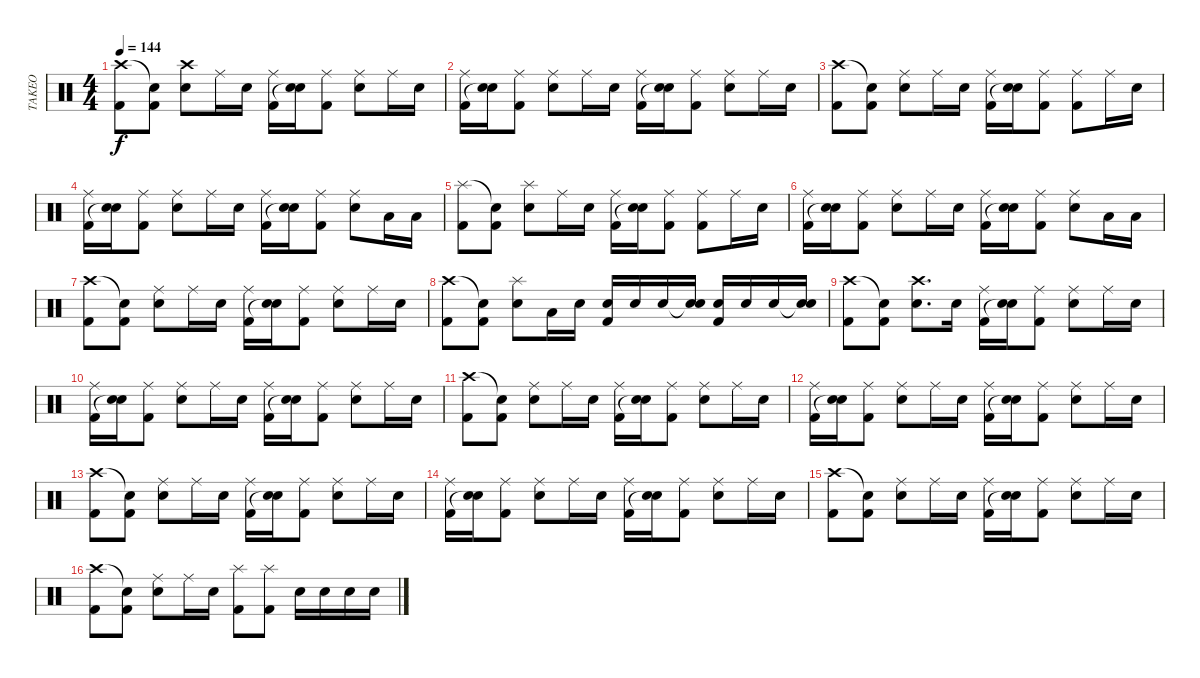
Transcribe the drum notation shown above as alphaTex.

\track ("TAKEO" "TAKEO") {instrument percussion}
\staff {score}
\articulation defaults
\ts (4 4)
\tempo 144
\clef neutral
\ks c
("Crash high (hit)" "Kick (hit) 2").8{dy f} ("Snare (hit)"{t} "Kick (hit) 2").8 ("Crash high (hit)" "Electric Snare (hit)").8 "Ride (middle)".16 "Electric Snare (hit)".16 ("Ride (middle)" "Kick (hit) 2").16 ("Electric Snare (hit)" "Snare (hit)"{t}).16 ("Ride (middle)" "Kick (hit) 2").8 ("Ride (middle)" "Electric Snare (hit)").8 "Ride (middle)".16 "Electric Snare (hit)".16 |
("Ride (middle)" "Kick (hit) 2").16 ("Electric Snare (hit)" "Snare (hit)"{t}).16 ("Ride (middle)" "Kick (hit) 2").8 ("Ride (middle)" "Electric Snare (hit)").8 "Ride (middle)".16 "Electric Snare (hit)".16 ("Ride (middle)" "Kick (hit) 2").16 ("Electric Snare (hit)" "Snare (hit)"{t}).16 ("Ride (middle)" "Kick (hit) 2").8 ("Ride (middle)" "Electric Snare (hit)").8 "Ride (middle)".16 "Electric Snare (hit)".16 |
("Crash high (hit)" "Kick (hit) 2").8 ("Snare (hit)"{t} "Kick (hit) 2").8 ("Ride (middle)" "Electric Snare (hit)").8 "Ride (middle)".16 "Electric Snare (hit)".16 ("Ride (middle)" "Kick (hit) 2").16 ("Electric Snare (hit)" "Snare (hit)"{t}).16 ("Ride (middle)" "Kick (hit) 2").8 ("Ride (middle)" "Kick (hit) 2").8 "Ride (middle)".16 "Electric Snare (hit)".16 |
("Ride (middle)" "Kick (hit) 2").16 ("Electric Snare (hit)" "Snare (hit)"{t}).16 ("Ride (middle)" "Kick (hit) 2").8 ("Ride (middle)" "Electric Snare (hit)").8 "Ride (middle)".16 "Electric Snare (hit)".16 ("Ride (middle)" "Kick (hit) 2").16 ("Electric Snare (hit)" "Snare (hit)"{t}).16 ("Ride (middle)" "Kick (hit) 2").8 ("Ride (middle)" "Electric Snare (hit)").8 "Low Floor Tom (hit)".16 "Low Floor Tom (hit)".16 |
("Splash (hit)" "Kick (hit) 2").8 ("Snare (hit)"{t} "Kick (hit) 2").8 ("Splash (hit)" "Electric Snare (hit)").8 "Ride (middle)".16 "Electric Snare (hit)".16 ("Ride (middle)" "Kick (hit) 2").16 ("Electric Snare (hit)" "Snare (hit)"{t}).16 ("Ride (middle)" "Kick (hit) 2").8 ("Ride (middle)" "Kick (hit) 2").8 "Ride (middle)".16 "Electric Snare (hit)".16 |
("Ride (middle)" "Kick (hit) 2").16 ("Electric Snare (hit)" "Snare (hit)"{t}).16 ("Ride (middle)" "Kick (hit) 2").8 ("Ride (middle)" "Electric Snare (hit)").8 "Ride (middle)".16 "Electric Snare (hit)".16 ("Ride (middle)" "Kick (hit) 2").16 ("Electric Snare (hit)" "Snare (hit)"{t}).16 ("Ride (middle)" "Kick (hit) 2").8 ("Ride (middle)" "Electric Snare (hit)").8 "Low Floor Tom (hit)".16 "Low Floor Tom (hit)".16 |
("Crash high (hit)" "Kick (hit) 2").8 ("Snare (hit)"{t} "Kick (hit) 2").8 ("Ride (middle)" "Electric Snare (hit)").8 "Ride (middle)".16 "Electric Snare (hit)".16 ("Ride (middle)" "Kick (hit) 2").16 ("Electric Snare (hit)" "Snare (hit)"{t}).16 ("Ride (middle)" "Kick (hit) 2").8 ("Ride (middle)" "Electric Snare (hit)").8 "Ride (middle)".16 "Electric Snare (hit)".16 |
("Crash high (hit)" "Kick (hit) 2").8 ("Snare (hit)"{t} "Kick (hit) 2").8 ("Splash (hit)" "Electric Snare (hit)").8 "Low Floor Tom (hit)".16 "Electric Snare (hit)".16 ("Kick (hit) 2" "Electric Snare (hit)").16 "Electric Snare (hit)".16 "Electric Snare (hit)".16 ("Snare (hit)"{t} "Electric Snare (hit)").16 ("Kick (hit) 2" "Electric Snare (hit)").16 "Electric Snare (hit)".16 "Electric Snare (hit)".16 ("Snare (hit)"{t} "Electric Snare (hit)").16 |
("Crash high (hit)" "Kick (hit) 2").8 ("Snare (hit)"{t} "Kick (hit) 2").8 ("Crash high (hit)" "Electric Snare (hit)").8{d} "Electric Snare (hit)".16 ("Ride (middle)" "Kick (hit) 2").16 ("Electric Snare (hit)" "Snare (hit)"{t}).16 ("Ride (middle)" "Kick (hit) 2").8 ("Electric Snare (hit)" "Ride (middle)").8 "Ride (middle)".16 "Electric Snare (hit)".16 |
("Ride (middle)" "Kick (hit) 2").16 ("Electric Snare (hit)" "Snare (hit)"{t}).16 ("Ride (middle)" "Kick (hit) 2").8 ("Ride (middle)" "Electric Snare (hit)").8 "Ride (middle)".16 "Electric Snare (hit)".16 ("Ride (middle)" "Kick (hit) 2").16 ("Electric Snare (hit)" "Snare (hit)"{t}).16 ("Ride (middle)" "Kick (hit) 2").8 ("Ride (middle)" "Electric Snare (hit)").8 "Ride (middle)".16 "Electric Snare (hit)".16 |
("Crash high (hit)" "Kick (hit) 2").8 ("Snare (hit)"{t} "Kick (hit) 2").8 ("Ride (middle)" "Electric Snare (hit)").8 "Ride (middle)".16 "Electric Snare (hit)".16 ("Ride (middle)" "Kick (hit) 2").16 ("Electric Snare (hit)" "Snare (hit)"{t}).16 ("Ride (middle)" "Kick (hit) 2").8 ("Ride (middle)" "Electric Snare (hit)").8 "Ride (middle)".16 "Electric Snare (hit)".16 |
("Ride (middle)" "Kick (hit) 2").16 ("Electric Snare (hit)" "Snare (hit)"{t}).16 ("Ride (middle)" "Kick (hit) 2").8 ("Ride (middle)" "Electric Snare (hit)").8 "Ride (middle)".16 "Electric Snare (hit)".16 ("Ride (middle)" "Kick (hit) 2").16 ("Electric Snare (hit)" "Snare (hit)"{t}).16 ("Ride (middle)" "Kick (hit) 2").8 ("Ride (middle)" "Electric Snare (hit)").8 "Ride (middle)".16 "Electric Snare (hit)".16 |
("Crash high (hit)" "Kick (hit) 2").8 ("Snare (hit)"{t} "Kick (hit) 2").8 ("Ride (middle)" "Electric Snare (hit)").8 "Ride (middle)".16 "Electric Snare (hit)".16 ("Ride (middle)" "Kick (hit) 2").16 ("Electric Snare (hit)" "Snare (hit)"{t}).16 ("Ride (middle)" "Kick (hit) 2").8 ("Ride (middle)" "Electric Snare (hit)").8 "Ride (middle)".16 "Electric Snare (hit)".16 |
("Ride (middle)" "Kick (hit) 2").16 ("Electric Snare (hit)" "Snare (hit)"{t}).16 ("Ride (middle)" "Kick (hit) 2").8 ("Ride (middle)" "Electric Snare (hit)").8 "Ride (middle)".16 "Electric Snare (hit)".16 ("Ride (middle)" "Kick (hit) 2").16 ("Electric Snare (hit)" "Snare (hit)"{t}).16 ("Ride (middle)" "Kick (hit) 2").8 ("Ride (middle)" "Electric Snare (hit)").8 "Ride (middle)".16 "Electric Snare (hit)".16 |
("Crash high (hit)" "Kick (hit) 2").8 ("Snare (hit)"{t} "Kick (hit) 2").8 ("Ride (middle)" "Electric Snare (hit)").8 "Ride (middle)".16 "Electric Snare (hit)".16 ("Ride (middle)" "Kick (hit) 2").16 ("Electric Snare (hit)" "Snare (hit)"{t}).16 ("Ride (middle)" "Kick (hit) 2").8 ("Ride (middle)" "Electric Snare (hit)").8 "Ride (middle)".16 "Electric Snare (hit)".16 |
("Crash high (hit)" "Kick (hit) 2").8 ("Snare (hit)"{t} "Kick (hit) 2").8 ("Ride (middle)" "Electric Snare (hit)").8 "Ride (middle)".16 "Electric Snare (hit)".16 ("Splash (hit)" "Kick (hit) 2").8 ("Splash (hit)" "Kick (hit) 2").8 "Electric Snare (hit)".16 "Electric Snare (hit)".16 "Electric Snare (hit)".16 "Electric Snare (hit)".16
